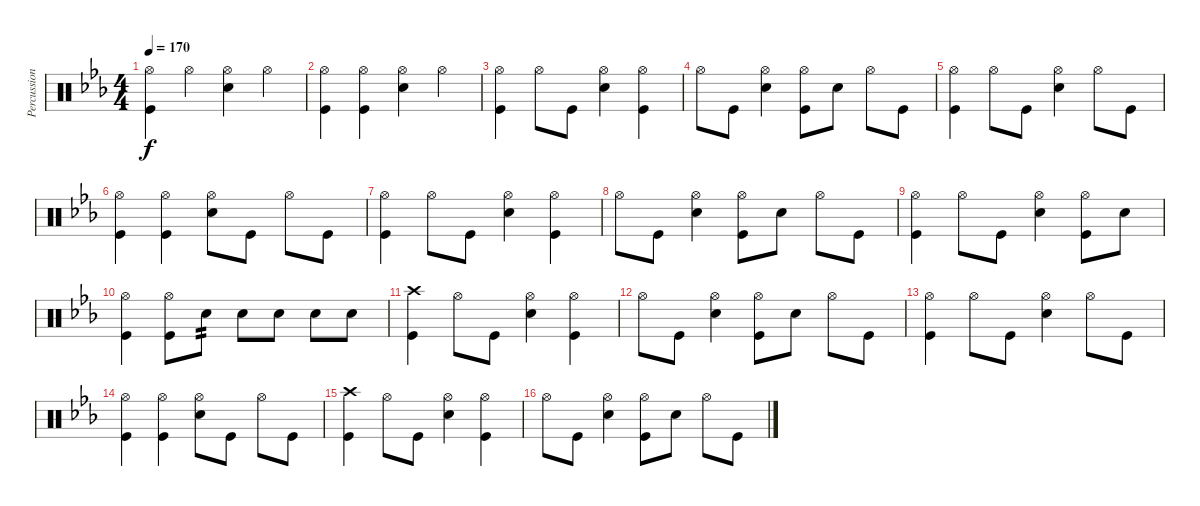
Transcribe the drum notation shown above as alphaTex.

\track ("Percussion" "Percussion") {instrument percussion}
\staff {score}
\articulation defaults
\ts (4 4)
\tempo 170
\clef neutral
\ks eb
("Kick (hit)" "Hi-Hat (open)").4{dy f} "Hi-Hat (open)".4 ("Hi-Hat (open)" "Snare (hit) 2").4 "Hi-Hat (open)".4 |
("Hi-Hat (open)" "Kick (hit)").4 ("Kick (hit)" "Hi-Hat (open)").4 ("Hi-Hat (open)" "Snare (hit) 2").4 "Hi-Hat (open)".4 |
("Kick (hit)" "Hi-Hat (open)").4 "Hi-Hat (open)".8 "Kick (hit)".8 ("Snare (hit) 2" "Hi-Hat (open)").4 ("Kick (hit)" "Hi-Hat (open)").4 |
"Hi-Hat (open)".8 "Kick (hit)".8 ("Snare (hit) 2" "Hi-Hat (open)").4 ("Kick (hit)" "Hi-Hat (open)").8 "Snare (hit) 2".8 "Hi-Hat (open)".8 "Kick (hit)".8 |
("Kick (hit)" "Hi-Hat (open)").4 "Hi-Hat (open)".8 "Kick (hit)".8 ("Snare (hit) 2" "Hi-Hat (open)").4 "Hi-Hat (open)".8 "Kick (hit)".8 |
("Kick (hit)" "Hi-Hat (open)").4 ("Kick (hit)" "Hi-Hat (open)").4 ("Snare (hit) 2" "Hi-Hat (open)").8 "Kick (hit)".8 "Hi-Hat (open)".8 "Kick (hit)".8 |
("Kick (hit)" "Hi-Hat (open)").4 "Hi-Hat (open)".8 "Kick (hit)".8 ("Snare (hit) 2" "Hi-Hat (open)").4 ("Kick (hit)" "Hi-Hat (open)").4 |
"Hi-Hat (open)".8 "Kick (hit)".8 ("Snare (hit) 2" "Hi-Hat (open)").4 ("Kick (hit)" "Hi-Hat (open)").8 "Snare (hit) 2".8 "Hi-Hat (open)".8 "Kick (hit)".8 |
("Kick (hit)" "Hi-Hat (open)").4 "Hi-Hat (open)".8 "Kick (hit)".8 ("Snare (hit) 2" "Hi-Hat (open)").4 ("Hi-Hat (open)" "Kick (hit)").8 "Snare (hit) 2".8 |
("Hi-Hat (open)" "Kick (hit)").4 ("Kick (hit)" "Hi-Hat (open)").8 "Snare (hit) 2".8{tp 2} "Snare (hit) 2".8 "Snare (hit) 2".8 "Snare (hit) 2".8 "Snare (hit) 2".8 |
("Kick (hit)" "Crash high (hit)").4 "Hi-Hat (open)".8 "Kick (hit)".8 ("Snare (hit) 2" "Hi-Hat (open)").4 ("Kick (hit)" "Hi-Hat (open)").4 |
"Hi-Hat (open)".8 "Kick (hit)".8 ("Snare (hit) 2" "Hi-Hat (open)").4 ("Kick (hit)" "Hi-Hat (open)").8 "Snare (hit) 2".8 "Hi-Hat (open)".8 "Kick (hit)".8 |
("Kick (hit)" "Hi-Hat (open)").4 "Hi-Hat (open)".8 "Kick (hit)".8 ("Snare (hit) 2" "Hi-Hat (open)").4 "Hi-Hat (open)".8 "Kick (hit)".8 |
("Kick (hit)" "Hi-Hat (open)").4 ("Kick (hit)" "Hi-Hat (open)").4 ("Snare (hit) 2" "Hi-Hat (open)").8 "Kick (hit)".8 "Hi-Hat (open)".8 "Kick (hit)".8 |
("Crash high (hit)" "Kick (hit)").4 "Hi-Hat (open)".8 "Kick (hit)".8 ("Snare (hit) 2" "Hi-Hat (open)").4 ("Kick (hit)" "Hi-Hat (open)").4 |
"Hi-Hat (open)".8 "Kick (hit)".8 ("Snare (hit) 2" "Hi-Hat (open)").4 ("Kick (hit)" "Hi-Hat (open)").8 "Snare (hit) 2".8 "Hi-Hat (open)".8 "Kick (hit)".8
